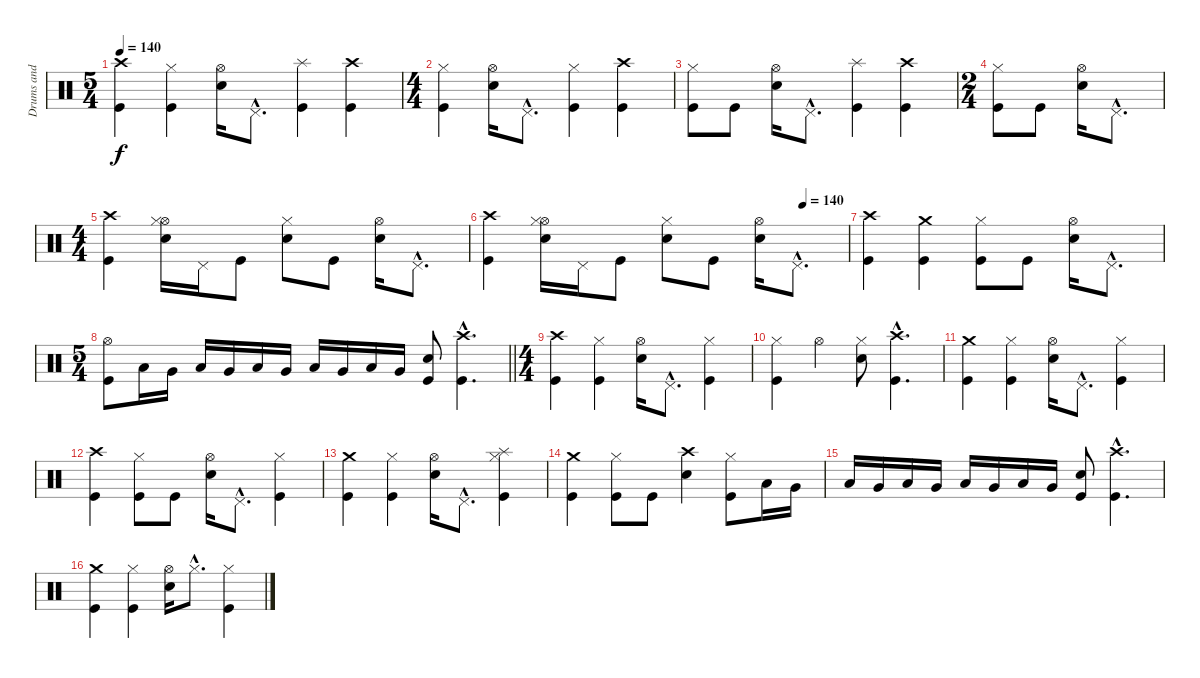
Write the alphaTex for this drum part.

\track ("Drums and percussion" "Drums and ") {instrument percussion}
\staff {score}
\articulation defaults
\ts (5 4)
\tempo 140
\clef neutral
\ks c
("Crash high (hit)" "Kick (hit)").4{dy f} ("Hi-Hat (closed)" "Kick (hit)").4 ("Hi-Hat (open)" "Electric Snare (hit)").16 "Pedal Hi-Hat (hit)"{hac}.8{d} ("Splash (hit)" "Kick (hit)").4 ("Crash high (hit)" "Kick (hit)").4 |
\ts (4 4)
("Hi-Hat (closed)" "Kick (hit)").4 ("Hi-Hat (open)" "Electric Snare (hit)").16 "Pedal Hi-Hat (hit)"{hac}.8{d} ("Hi-Hat (closed)" "Kick (hit)").4 ("Crash high (hit)" "Kick (hit)").4 |
("Hi-Hat (closed)" "Kick (hit)").8 "Kick (hit)".8 ("Hi-Hat (open)" "Electric Snare (hit)").16 "Pedal Hi-Hat (hit)"{hac}.8{d} ("Splash (hit)" "Kick (hit)").4 ("Crash high (hit)" "Kick (hit)").4 |
\ts (2 4)
("Hi-Hat (closed)" "Kick (hit)").8 "Kick (hit)".8 ("Hi-Hat (open)" "Electric Snare (hit)").16 "Pedal Hi-Hat (hit)"{hac}.8{d} |
\ts (4 4)
("Crash high (hit)" "Kick (hit)").4 ("Hi-Hat (open)" "Hi-Hat (closed)" "Electric Snare (hit)").16 "Pedal Hi-Hat (hit)".16 "Kick (hit)".8 ("Hi-Hat (closed)" "Electric Snare (hit)").8 "Kick (hit)".8 ("Hi-Hat (open)" "Electric Snare (hit)").16 "Pedal Hi-Hat (hit)"{hac}.8{d} |
\tempo (140 0.875)
("Crash high (hit)" "Kick (hit)").4 ("Hi-Hat (open)" "Hi-Hat (closed)" "Electric Snare (hit)").16 "Pedal Hi-Hat (hit)".16 "Kick (hit)".8 ("Hi-Hat (closed)" "Electric Snare (hit)").8 "Kick (hit)".8 ("Hi-Hat (open)" "Electric Snare (hit)").16 "Pedal Hi-Hat (hit)"{hac}.8{d} |
("Crash high (hit)" "Kick (hit)").4 ("Crash medium (hit)" "Kick (hit)").4 ("Hi-Hat (closed)" "Kick (hit)").8 "Kick (hit)".8 ("Hi-Hat (open)" "Electric Snare (hit)").16 "Pedal Hi-Hat (hit)"{hac}.8{d} |
\ts (5 4)
\barLineRight lightlight
("Hi-Hat (open)" "Kick (hit)").8 "Low Tom (hit)".16 "Very Low Tom (hit)".16 "Low Tom (hit)".16 "Very Low Tom (hit)".16 "Low Tom (hit)".16 "Very Low Tom (hit)".16 "Low Tom (hit)".16 "Very Low Tom (hit)".16 "Low Tom (hit)".16 "Very Low Tom (hit)".16 ("Electric Snare (hit)" "Kick (hit)").8 ("Crash high (hit)"{hac} "Kick (hit)"{hac}).4{d} |
\ts (4 4)
("Crash high (hit)" "Kick (hit)").4 ("Hi-Hat (closed)" "Kick (hit)").4 ("Hi-Hat (open)" "Electric Snare (hit)").16 "Pedal Hi-Hat (hit)"{hac}.8{d} ("Hi-Hat (closed)" "Kick (hit)").4 |
("Hi-Hat (closed)" "Kick (hit)").4 "Hi-Hat (open)".4 ("Hi-Hat (closed)" "Electric Snare (hit)").8 ("Crash high (hit)"{hac} "Kick (hit)"{hac}).4{d} |
("Crash medium (hit)" "Kick (hit)").4 ("Hi-Hat (closed)" "Kick (hit)").4 ("Hi-Hat (open)" "Electric Snare (hit)").16 "Pedal Hi-Hat (hit)"{hac}.8{d} ("Hi-Hat (closed)" "Kick (hit)").4 |
("Crash high (hit)" "Kick (hit)").4 ("Hi-Hat (closed)" "Kick (hit)").8 "Kick (hit)".8 ("Hi-Hat (open)" "Electric Snare (hit)").16 "Pedal Hi-Hat (hit)"{hac}.8{d} ("Hi-Hat (closed)" "Kick (hit)").4 |
("Crash medium (hit)" "Kick (hit)").4 ("Hi-Hat (closed)" "Kick (hit)").4 ("Hi-Hat (open)" "Electric Snare (hit)").16 "Pedal Hi-Hat (hit)"{hac}.8{d} ("Hi-Hat (closed)" "Splash (hit)" "Kick (hit)").4 |
("Crash medium (hit)" "Kick (hit)").4 ("Hi-Hat (closed)" "Kick (hit)").8 "Kick (hit)".8 ("Crash high (hit)" "Electric Snare (hit)").4 ("Hi-Hat (closed)" "Kick (hit)").8 "Low Tom (hit)".16 "Very Low Tom (hit)".16 |
"Low Tom (hit)".16 "Very Low Tom (hit)".16 "Low Tom (hit)".16 "Very Low Tom (hit)".16 "Low Tom (hit)".16 "Very Low Tom (hit)".16 "Low Tom (hit)".16 "Very Low Tom (hit)".16 ("Electric Snare (hit)" "Kick (hit)").8 ("Crash high (hit)"{hac} "Kick (hit)"{hac}).4{d} |
("Crash medium (hit)" "Kick (hit)").4 ("Hi-Hat (closed)" "Kick (hit)").4 ("Hi-Hat (open)" "Electric Snare (hit)").16 "Hi-Hat (closed)"{hac}.8{d} ("Hi-Hat (closed)" "Kick (hit)").4
